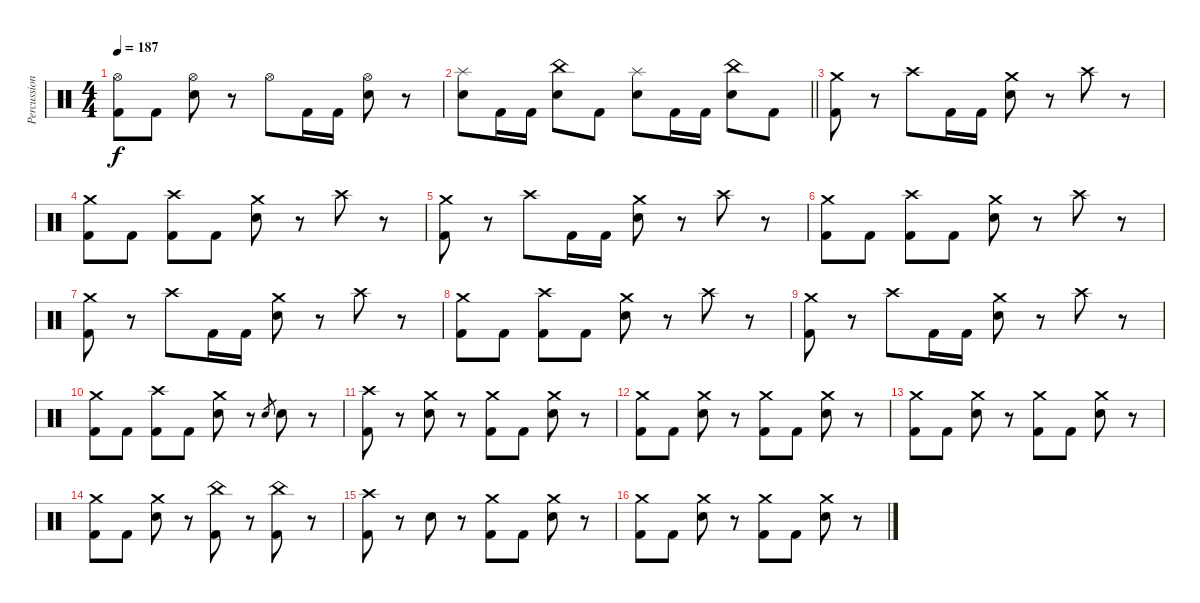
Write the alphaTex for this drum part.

\track ("Percussion" "Percussion") {instrument percussion}
\staff {score}
\articulation defaults
\ts (4 4)
\tempo 187
\clef neutral
\ks c
("Hi-Hat (open)" "Kick (hit) 2").8{dy f} "Kick (hit) 2".8 ("Hi-Hat (open)" "Snare (hit) 2").8 r.8 "Hi-Hat (open)".8 "Kick (hit) 2".16 "Kick (hit) 2".16 ("Hi-Hat (open)" "Snare (hit) 2").8 r.8 |
\barLineRight lightlight
("Splash (hit)" "Snare (hit) 2").8 "Kick (hit) 2".16 "Kick (hit) 2".16 ("China (hit)" "Snare (hit) 2").8 "Kick (hit) 2".8 ("Splash (hit)" "Snare (hit) 2").8 "Kick (hit) 2".16 "Kick (hit) 2".16 ("China (hit)" "Snare (hit) 2").8 "Kick (hit) 2".8 |
("Crash medium (hit)" "Kick (hit) 2").8 r.8 "Crash high (hit)".8 "Kick (hit) 2".16 "Kick (hit) 2".16 ("Crash medium (hit)" "Snare (hit) 2").8 r.8 "Crash high (hit)".8 r.8 |
("Crash medium (hit)" "Kick (hit) 2").8 "Kick (hit) 2".8 ("Crash high (hit)" "Kick (hit) 2").8 "Kick (hit) 2".8 ("Crash medium (hit)" "Snare (hit) 2").8 r.8 "Crash high (hit)".8 r.8 |
("Crash medium (hit)" "Kick (hit) 2").8 r.8 "Crash high (hit)".8 "Kick (hit) 2".16 "Kick (hit) 2".16 ("Crash medium (hit)" "Snare (hit) 2").8 r.8 "Crash high (hit)".8 r.8 |
("Crash medium (hit)" "Kick (hit) 2").8 "Kick (hit) 2".8 ("Crash high (hit)" "Kick (hit) 2").8 "Kick (hit) 2".8 ("Crash medium (hit)" "Snare (hit) 2").8 r.8 "Crash high (hit)".8 r.8 |
("Crash medium (hit)" "Kick (hit) 2").8 r.8 "Crash high (hit)".8 "Kick (hit) 2".16 "Kick (hit) 2".16 ("Crash medium (hit)" "Snare (hit) 2").8 r.8 "Crash high (hit)".8 r.8 |
("Crash medium (hit)" "Kick (hit) 2").8 "Kick (hit) 2".8 ("Crash high (hit)" "Kick (hit) 2").8 "Kick (hit) 2".8 ("Crash medium (hit)" "Snare (hit) 2").8 r.8 "Crash high (hit)".8 r.8 |
("Crash medium (hit)" "Kick (hit) 2").8 r.8 "Crash high (hit)".8 "Kick (hit) 2".16 "Kick (hit) 2".16 ("Crash medium (hit)" "Snare (hit) 2").8 r.8 "Crash high (hit)".8 r.8 |
("Crash medium (hit)" "Kick (hit) 2").8 "Kick (hit) 2".8 ("Crash high (hit)" "Kick (hit) 2").8 "Kick (hit) 2".8 ("Crash medium (hit)" "Snare (hit) 2").8 r.8 "Snare (hit) 2".8{gr} "Snare (hit) 2".8 r.8 |
("Crash high (hit)" "Kick (hit) 2").8 r.8 ("Crash medium (hit)" "Snare (hit) 2").8 r.8 ("Crash medium (hit)" "Kick (hit) 2").8 "Kick (hit) 2".8 ("Crash medium (hit)" "Snare (hit) 2").8 r.8 |
("Crash medium (hit)" "Kick (hit) 2").8 "Kick (hit) 2".8 ("Crash medium (hit)" "Snare (hit) 2").8 r.8 ("Crash medium (hit)" "Kick (hit) 2").8 "Kick (hit) 2".8 ("Crash medium (hit)" "Snare (hit) 2").8 r.8 |
("Crash medium (hit)" "Kick (hit) 2").8 "Kick (hit) 2".8 ("Crash medium (hit)" "Snare (hit) 2").8 r.8 ("Crash medium (hit)" "Kick (hit) 2").8 "Kick (hit) 2".8 ("Crash medium (hit)" "Snare (hit) 2").8 r.8 |
("Crash medium (hit)" "Kick (hit) 2").8 "Kick (hit) 2".8 ("Crash medium (hit)" "Snare (hit) 2").8 r.8 ("China (hit)" "Kick (hit) 2").8 r.8 ("China (hit)" "Kick (hit) 2").8 r.8 |
("Crash high (hit)" "Kick (hit) 2").8 r.8 "Snare (hit) 2".8 r.8 ("Crash medium (hit)" "Kick (hit) 2").8 "Kick (hit) 2".8 ("Crash medium (hit)" "Snare (hit) 2").8 r.8 |
("Crash medium (hit)" "Kick (hit) 2").8 "Kick (hit) 2".8 ("Crash medium (hit)" "Snare (hit) 2").8 r.8 ("Crash medium (hit)" "Kick (hit) 2").8 "Kick (hit) 2".8 ("Crash medium (hit)" "Snare (hit) 2").8 r.8
